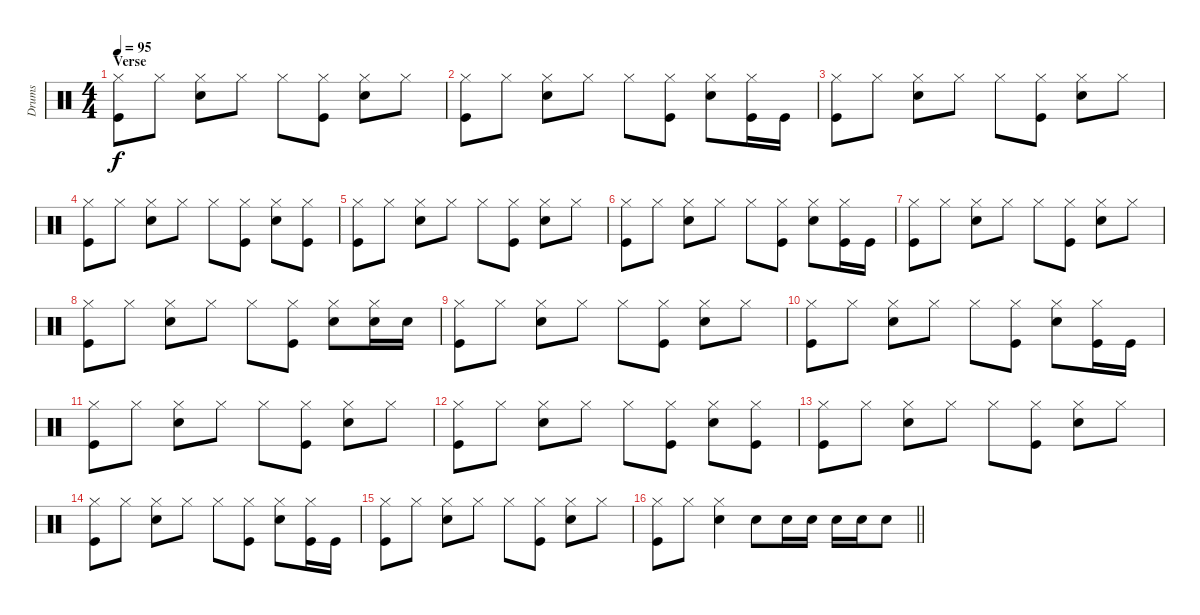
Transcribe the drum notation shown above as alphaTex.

\track ("Drums" "Drums") {instrument percussion}
\staff {score}
\articulation defaults
\ts (4 4)
\section ("" "Verse ")
\tempo 95
\clef neutral
\ks c
("Hi-Hat (closed)" "Kick (hit)").8{dy f} "Hi-Hat (closed)".8 ("Hi-Hat (closed)" "Electric Snare (hit)").8 "Hi-Hat (closed)".8 "Hi-Hat (closed)".8 ("Hi-Hat (closed)" "Kick (hit)").8 ("Hi-Hat (closed)" "Electric Snare (hit)").8 "Hi-Hat (closed)".8 |
("Hi-Hat (closed)" "Kick (hit)").8 "Hi-Hat (closed)".8 ("Hi-Hat (closed)" "Electric Snare (hit)").8 "Hi-Hat (closed)".8 "Hi-Hat (closed)".8 ("Hi-Hat (closed)" "Kick (hit)").8 ("Hi-Hat (closed)" "Electric Snare (hit)").8 ("Hi-Hat (closed)" "Kick (hit)").16 "Kick (hit)".16 |
("Hi-Hat (closed)" "Kick (hit)").8 "Hi-Hat (closed)".8 ("Hi-Hat (closed)" "Electric Snare (hit)").8 "Hi-Hat (closed)".8 "Hi-Hat (closed)".8 ("Hi-Hat (closed)" "Kick (hit)").8 ("Hi-Hat (closed)" "Electric Snare (hit)").8 "Hi-Hat (closed)".8 |
("Hi-Hat (closed)" "Kick (hit)").8 "Hi-Hat (closed)".8 ("Hi-Hat (closed)" "Electric Snare (hit)").8 "Hi-Hat (closed)".8 "Hi-Hat (closed)".8 ("Hi-Hat (closed)" "Kick (hit)").8 ("Hi-Hat (closed)" "Electric Snare (hit)").8 ("Hi-Hat (closed)" "Kick (hit)").8 |
("Hi-Hat (closed)" "Kick (hit)").8 "Hi-Hat (closed)".8 ("Hi-Hat (closed)" "Electric Snare (hit)").8 "Hi-Hat (closed)".8 "Hi-Hat (closed)".8 ("Hi-Hat (closed)" "Kick (hit)").8 ("Hi-Hat (closed)" "Electric Snare (hit)").8 "Hi-Hat (closed)".8 |
("Hi-Hat (closed)" "Kick (hit)").8 "Hi-Hat (closed)".8 ("Hi-Hat (closed)" "Electric Snare (hit)").8 "Hi-Hat (closed)".8 "Hi-Hat (closed)".8 ("Hi-Hat (closed)" "Kick (hit)").8 ("Hi-Hat (closed)" "Electric Snare (hit)").8 ("Hi-Hat (closed)" "Kick (hit)").16 "Kick (hit)".16 |
("Hi-Hat (closed)" "Kick (hit)").8 "Hi-Hat (closed)".8 ("Hi-Hat (closed)" "Electric Snare (hit)").8 "Hi-Hat (closed)".8 "Hi-Hat (closed)".8 ("Hi-Hat (closed)" "Kick (hit)").8 ("Hi-Hat (closed)" "Electric Snare (hit)").8 "Hi-Hat (closed)".8 |
("Hi-Hat (closed)" "Kick (hit)").8 "Hi-Hat (closed)".8 ("Hi-Hat (closed)" "Electric Snare (hit)").8 "Hi-Hat (closed)".8 "Hi-Hat (closed)".8 ("Hi-Hat (closed)" "Kick (hit)").8 ("Hi-Hat (closed)" "Electric Snare (hit)").8 ("Hi-Hat (closed)" "Electric Snare (hit)").16 "Electric Snare (hit)".16 |
("Hi-Hat (closed)" "Kick (hit)").8 "Hi-Hat (closed)".8 ("Hi-Hat (closed)" "Electric Snare (hit)").8 "Hi-Hat (closed)".8 "Hi-Hat (closed)".8 ("Hi-Hat (closed)" "Kick (hit)").8 ("Hi-Hat (closed)" "Electric Snare (hit)").8 "Hi-Hat (closed)".8 |
("Hi-Hat (closed)" "Kick (hit)").8 "Hi-Hat (closed)".8 ("Hi-Hat (closed)" "Electric Snare (hit)").8 "Hi-Hat (closed)".8 "Hi-Hat (closed)".8 ("Hi-Hat (closed)" "Kick (hit)").8 ("Hi-Hat (closed)" "Electric Snare (hit)").8 ("Hi-Hat (closed)" "Kick (hit)").16 "Kick (hit)".16 |
("Hi-Hat (closed)" "Kick (hit)").8 "Hi-Hat (closed)".8 ("Hi-Hat (closed)" "Electric Snare (hit)").8 "Hi-Hat (closed)".8 "Hi-Hat (closed)".8 ("Hi-Hat (closed)" "Kick (hit)").8 ("Hi-Hat (closed)" "Electric Snare (hit)").8 "Hi-Hat (closed)".8 |
("Hi-Hat (closed)" "Kick (hit)").8 "Hi-Hat (closed)".8 ("Hi-Hat (closed)" "Electric Snare (hit)").8 "Hi-Hat (closed)".8 "Hi-Hat (closed)".8 ("Hi-Hat (closed)" "Kick (hit)").8 ("Hi-Hat (closed)" "Electric Snare (hit)").8 ("Hi-Hat (closed)" "Kick (hit)").8 |
("Hi-Hat (closed)" "Kick (hit)").8 "Hi-Hat (closed)".8 ("Hi-Hat (closed)" "Electric Snare (hit)").8 "Hi-Hat (closed)".8 "Hi-Hat (closed)".8 ("Hi-Hat (closed)" "Kick (hit)").8 ("Hi-Hat (closed)" "Electric Snare (hit)").8 "Hi-Hat (closed)".8 |
("Hi-Hat (closed)" "Kick (hit)").8 "Hi-Hat (closed)".8 ("Hi-Hat (closed)" "Electric Snare (hit)").8 "Hi-Hat (closed)".8 "Hi-Hat (closed)".8 ("Hi-Hat (closed)" "Kick (hit)").8 ("Hi-Hat (closed)" "Electric Snare (hit)").8 ("Hi-Hat (closed)" "Kick (hit)").16 "Kick (hit)".16 |
("Hi-Hat (closed)" "Kick (hit)").8 "Hi-Hat (closed)".8 ("Hi-Hat (closed)" "Electric Snare (hit)").8 "Hi-Hat (closed)".8 "Hi-Hat (closed)".8 ("Hi-Hat (closed)" "Kick (hit)").8 ("Hi-Hat (closed)" "Electric Snare (hit)").8 "Hi-Hat (closed)".8 |
\barLineRight lightlight
("Hi-Hat (closed)" "Kick (hit)").8 "Hi-Hat (closed)".8 ("Hi-Hat (closed)" "Electric Snare (hit)").4 "Electric Snare (hit)".8 "Electric Snare (hit)".16 "Electric Snare (hit)".16 "Electric Snare (hit)".16 "Electric Snare (hit)".16 "Electric Snare (hit)".8
